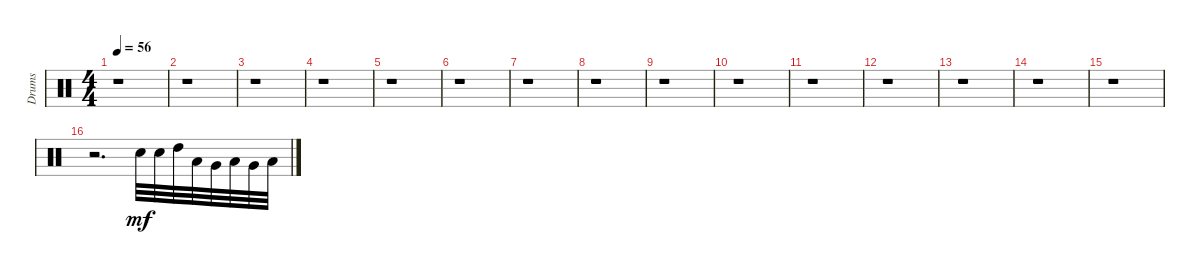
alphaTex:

\track ("Drums" "Drums") {instrument percussion}
\staff {score}
\articulation defaults
\ts (4 4)
\tempo 56
\clef neutral
\ks c
r.1{dy mf} |
r.1 |
r.1 |
r.1 |
r.1 |
r.1 |
r.1 |
r.1 |
r.1 |
r.1 |
r.1 |
r.1 |
r.1 |
r.1 |
r.1 |
r.2{d} "Electric Snare (hit)".32{balance 8} "Snare (hit) 2".32 "High Tom (hit)".32 "Low Tom (hit)".32 "Very Low Tom (hit)".32 "Low Floor Tom (hit)".32 "Very Low Tom (hit)".32 "Low Floor Tom (hit)".32
